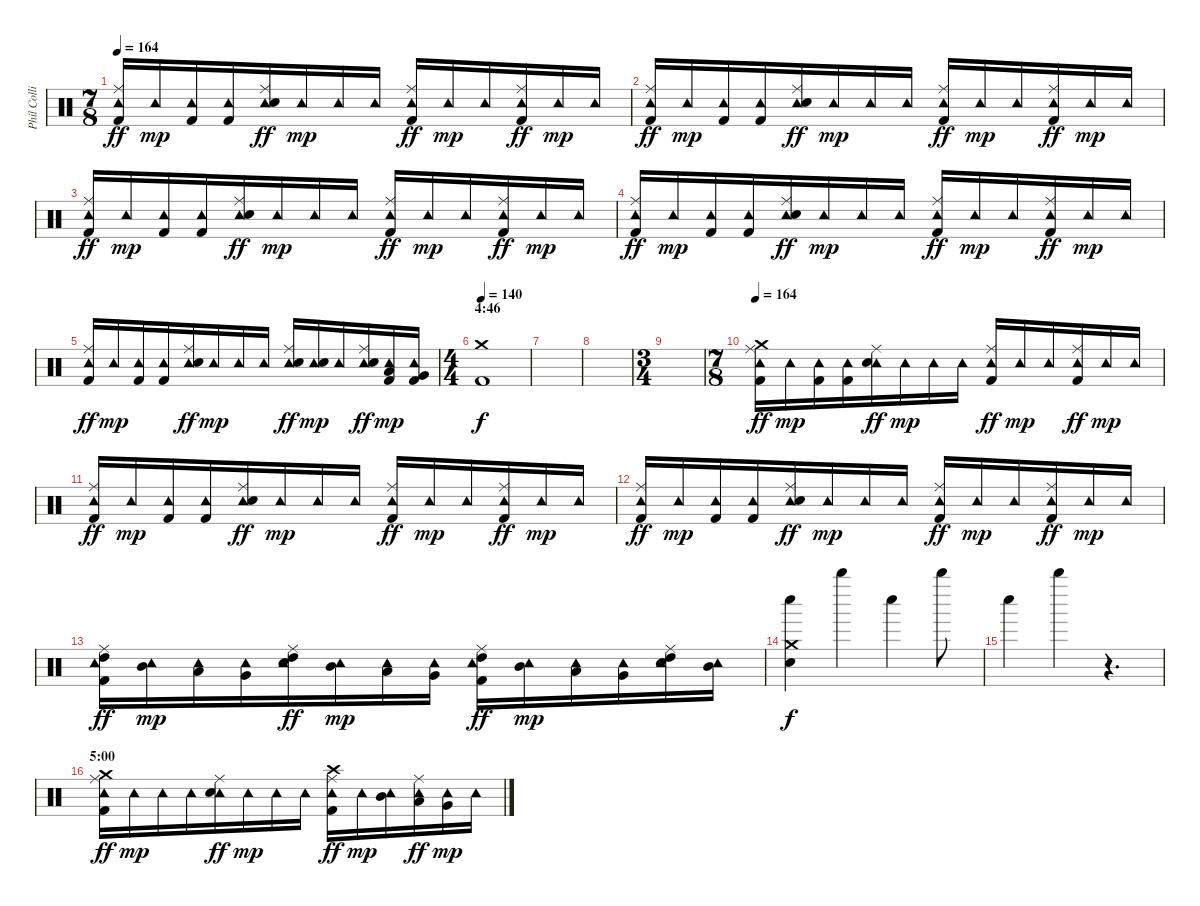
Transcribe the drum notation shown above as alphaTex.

\track ("Phil Collins (drums)" "Phil Colli") {instrument percussion}
\staff {score}
\articulation defaults
\ts (7 8)
\tempo 164
\clef neutral
\ks c
("Tambourine (hit)" "Ride (middle)" "Kick (hit) 2").16{dy ff} "Tambourine (hit)".16{dy mp} ("Tambourine (hit)" "Kick (hit) 2").16 ("Tambourine (hit)" "Kick (hit) 2").16 ("Tambourine (hit)" "Ride (middle)" "Electric Snare (hit)").16{dy ff} "Tambourine (hit)".16{dy mp} "Tambourine (hit)".16 "Tambourine (hit)".16 ("Tambourine (hit)" "Ride (middle)" "Kick (hit) 2").16{dy ff} "Tambourine (hit)".16{dy mp} "Tambourine (hit)".16 ("Tambourine (hit)" "Ride (middle)" "Kick (hit) 2").16{dy ff} "Tambourine (hit)".16{dy mp} "Tambourine (hit)".16 |
("Tambourine (hit)" "Ride (middle)" "Kick (hit) 2").16{dy ff} "Tambourine (hit)".16{dy mp} ("Tambourine (hit)" "Kick (hit) 2").16 ("Tambourine (hit)" "Kick (hit) 2").16 ("Tambourine (hit)" "Ride (middle)" "Electric Snare (hit)").16{dy ff} "Tambourine (hit)".16{dy mp} "Tambourine (hit)".16 "Tambourine (hit)".16 ("Tambourine (hit)" "Ride (middle)" "Kick (hit) 2").16{dy ff} "Tambourine (hit)".16{dy mp} "Tambourine (hit)".16 ("Tambourine (hit)" "Ride (middle)" "Kick (hit) 2").16{dy ff} "Tambourine (hit)".16{dy mp} "Tambourine (hit)".16 |
("Tambourine (hit)" "Ride (middle)" "Kick (hit) 2").16{dy ff} "Tambourine (hit)".16{dy mp} ("Tambourine (hit)" "Kick (hit) 2").16 ("Tambourine (hit)" "Kick (hit) 2").16 ("Tambourine (hit)" "Ride (middle)" "Electric Snare (hit)").16{dy ff} "Tambourine (hit)".16{dy mp} "Tambourine (hit)".16 "Tambourine (hit)".16 ("Tambourine (hit)" "Ride (middle)" "Kick (hit) 2").16{dy ff} "Tambourine (hit)".16{dy mp} "Tambourine (hit)".16 ("Tambourine (hit)" "Ride (middle)" "Kick (hit) 2").16{dy ff} "Tambourine (hit)".16{dy mp} "Tambourine (hit)".16 |
("Tambourine (hit)" "Ride (middle)" "Kick (hit) 2").16{dy ff} "Tambourine (hit)".16{dy mp} ("Tambourine (hit)" "Kick (hit) 2").16 ("Tambourine (hit)" "Kick (hit) 2").16 ("Tambourine (hit)" "Ride (middle)" "Electric Snare (hit)").16{dy ff} "Tambourine (hit)".16{dy mp} "Tambourine (hit)".16 "Tambourine (hit)".16 ("Tambourine (hit)" "Ride (middle)" "Kick (hit) 2").16{dy ff} "Tambourine (hit)".16{dy mp} "Tambourine (hit)".16 ("Tambourine (hit)" "Ride (middle)" "Kick (hit) 2").16{dy ff} "Tambourine (hit)".16{dy mp} "Tambourine (hit)".16 |
("Tambourine (hit)" "Ride (middle)" "Kick (hit) 2").16{dy ff} "Tambourine (hit)".16{dy mp} ("Tambourine (hit)" "Kick (hit) 2").16 ("Tambourine (hit)" "Kick (hit) 2").16 ("Tambourine (hit)" "Ride (middle)" "Electric Snare (hit)").16{dy ff} "Tambourine (hit)".16{dy mp} "Tambourine (hit)".16 "Tambourine (hit)".16 ("Tambourine (hit)" "Ride (middle)" "Electric Snare (hit)").16{dy ff} ("Tambourine (hit)" "Electric Snare (hit)").16{dy mp} "Tambourine (hit)".16 ("Tambourine (hit)" "Ride (middle)" "Electric Snare (hit)").16{dy ff} ("Tambourine (hit)" "Low Tom (hit)" "Kick (hit) 2").16{dy mp} ("Tambourine (hit)" "Very Low Tom (hit)" "Kick (hit) 2").16 |
\ts (4 4)
\section ("" "4:46")
\tempo 140
("Crash medium (hit)" "Kick (hit) 2").1{dy f} |
|
|
\ts (3 4)
|
\ts (7 8)
\tempo 164
("Tambourine (hit)" "Ride (middle)" "Crash medium (hit)" "Kick (hit) 2").16{dy ff} "Tambourine (hit)".16{dy mp} ("Tambourine (hit)" "Kick (hit) 2").16 ("Tambourine (hit)" "Kick (hit) 2").16 ("Tambourine (hit)" "Ride (middle)" "Electric Snare (hit)").16{dy ff} "Tambourine (hit)".16{dy mp} "Tambourine (hit)".16 "Tambourine (hit)".16 ("Tambourine (hit)" "Ride (middle)" "Kick (hit) 2").16{dy ff} "Tambourine (hit)".16{dy mp} "Tambourine (hit)".16 ("Tambourine (hit)" "Ride (middle)" "Kick (hit) 2").16{dy ff} "Tambourine (hit)".16{dy mp} "Tambourine (hit)".16 |
("Tambourine (hit)" "Ride (middle)" "Kick (hit) 2").16{dy ff} "Tambourine (hit)".16{dy mp} ("Tambourine (hit)" "Kick (hit) 2").16 ("Tambourine (hit)" "Kick (hit) 2").16 ("Tambourine (hit)" "Ride (middle)" "Electric Snare (hit)").16{dy ff} "Tambourine (hit)".16{dy mp} "Tambourine (hit)".16 "Tambourine (hit)".16 ("Tambourine (hit)" "Ride (middle)" "Kick (hit) 2").16{dy ff} "Tambourine (hit)".16{dy mp} "Tambourine (hit)".16 ("Tambourine (hit)" "Ride (middle)" "Kick (hit) 2").16{dy ff} "Tambourine (hit)".16{dy mp} "Tambourine (hit)".16 |
("Tambourine (hit)" "Ride (middle)" "Kick (hit) 2").16{dy ff} "Tambourine (hit)".16{dy mp} ("Tambourine (hit)" "Kick (hit) 2").16 ("Tambourine (hit)" "Kick (hit) 2").16 ("Tambourine (hit)" "Ride (middle)" "Electric Snare (hit)").16{dy ff} "Tambourine (hit)".16{dy mp} "Tambourine (hit)".16 "Tambourine (hit)".16 ("Tambourine (hit)" "Ride (middle)" "Kick (hit) 2").16{dy ff} "Tambourine (hit)".16{dy mp} "Tambourine (hit)".16 ("Tambourine (hit)" "Ride (middle)" "Kick (hit) 2").16{dy ff} "Tambourine (hit)".16{dy mp} "Tambourine (hit)".16 |
("Tambourine (hit)" "Ride (middle)" "High Tom (hit)" "Kick (hit) 2").16{dy ff} ("Tambourine (hit)" "Mid Tom (hit)").16{dy mp} ("Tambourine (hit)" "Low Tom (hit)").16 ("Tambourine (hit)" "Very Low Tom (hit)").16 ("Tambourine (hit)" "Ride (middle)" "High Tom (hit)" "Electric Snare (hit)").16{dy ff} ("Tambourine (hit)" "Mid Tom (hit)").16{dy mp} ("Tambourine (hit)" "Low Tom (hit)").16 ("Tambourine (hit)" "Very Low Tom (hit)").16 ("Tambourine (hit)" "Ride (middle)" "High Tom (hit)" "Kick (hit) 2").16{dy ff} ("Tambourine (hit)" "Mid Tom (hit)").16{dy mp} ("Tambourine (hit)" "Low Tom (hit)").16 ("Tambourine (hit)" "Very Low Tom (hit)").16 ("Tambourine (hit)" "Ride (middle)" "High Tom (hit)" "Electric Snare (hit)").16 ("Tambourine (hit)" "Mid Tom (hit)").16 |
("Whistle low (hit)" "Crash medium (hit)" "Electric Snare (hit)").4{dy f} "Whistle high (hit)".4 "Whistle low (hit)".4 "Whistle high (hit)".8 |
"Whistle low (hit)".4 "Whistle high (hit)".4 r.4{d} |
\section ("" "5:00")
("Tambourine (hit)" "Ride (middle)" "Crash medium (hit)" "Kick (hit) 2").16{dy ff} "Tambourine (hit)".16{dy mp} "Tambourine (hit)".16 "Tambourine (hit)".16 ("Tambourine (hit)" "Ride (middle)" "Electric Snare (hit)").16{dy ff} "Tambourine (hit)".16{dy mp} "Tambourine (hit)".16 "Tambourine (hit)".16 ("Tambourine (hit)" "Ride (middle)" "Crash high (hit)" "Kick (hit) 2").16{dy ff} "Tambourine (hit)".16{dy mp} ("Tambourine (hit)" "Mid Tom (hit)").16 ("Tambourine (hit)" "Ride (middle)" "Low Tom (hit)").16{dy ff} ("Tambourine (hit)" "Very Low Tom (hit)").16{dy mp} "Tambourine (hit)".16
